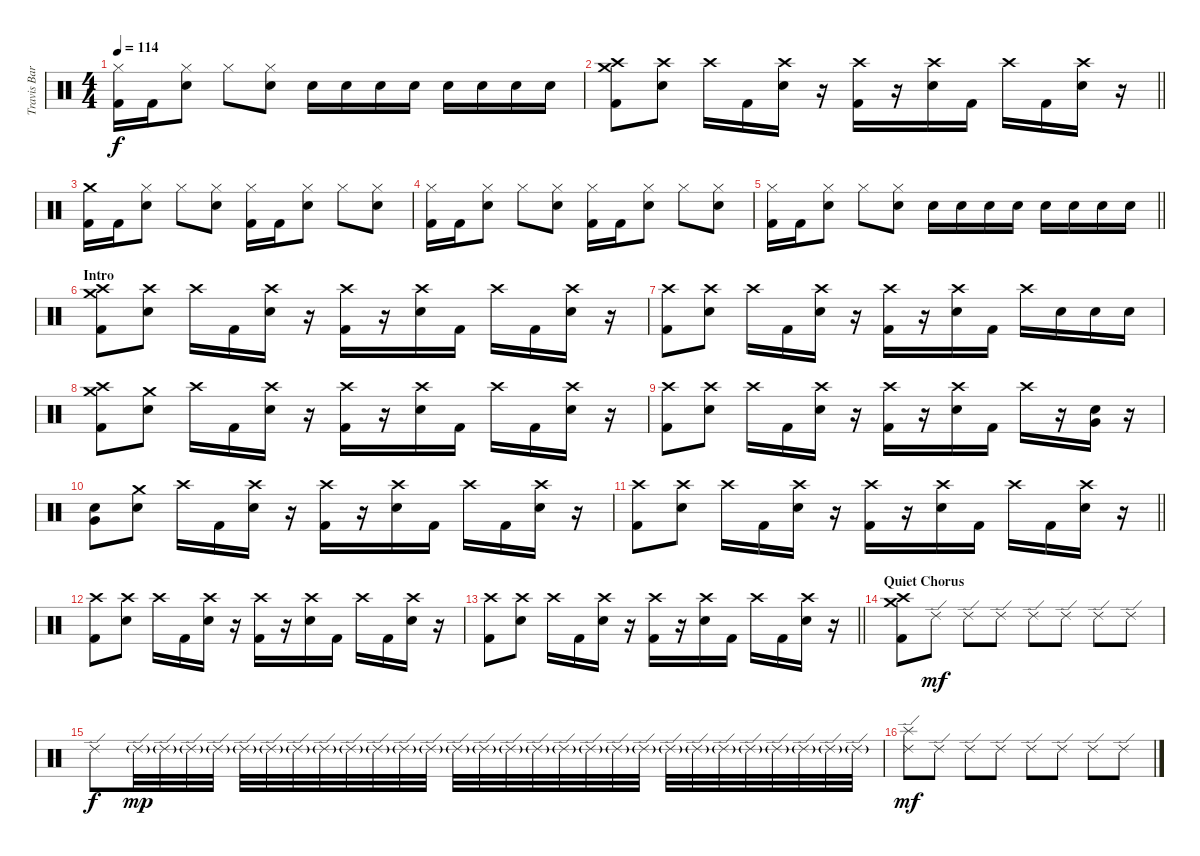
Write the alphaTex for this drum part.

\track ("Travis Barker" "Travis Bar") {instrument percussion}
\staff {score}
\articulation defaults
\ts (4 4)
\tempo 114
\clef neutral
\ks c
("Hi-Hat (closed)" "Kick (hit) 2").16{dy f} "Kick (hit) 2".16 ("Hi-Hat (closed)" "Electric Snare (hit)").8 "Hi-Hat (closed)".8 ("Hi-Hat (closed)" "Electric Snare (hit)").8 "Electric Snare (hit)".16 "Electric Snare (hit)".16 "Electric Snare (hit)".16 "Electric Snare (hit)".16 "Electric Snare (hit)".16 "Electric Snare (hit)".16 "Electric Snare (hit)".16 "Electric Snare (hit)".16 |
\barLineRight lightlight
("Crash medium (hit)" "Crash high (hit)" "Kick (hit) 2").8 ("Crash high (hit)" "Electric Snare (hit)").8 "Crash high (hit)".16 "Kick (hit) 2".16 ("Crash high (hit)" "Electric Snare (hit)").16 r.16 ("Crash high (hit)" "Kick (hit) 2").16 r.16 ("Crash high (hit)" "Electric Snare (hit)").16 "Kick (hit) 2".16 "Crash high (hit)".16 "Kick (hit) 2".16 ("Crash high (hit)" "Electric Snare (hit)").16 r.16 |
("Crash medium (hit)" "Kick (hit) 2").16 "Kick (hit) 2".16 ("Hi-Hat (closed)" "Electric Snare (hit)").8 "Hi-Hat (closed)".8 ("Hi-Hat (closed)" "Electric Snare (hit)").8 ("Hi-Hat (closed)" "Kick (hit) 2").16 "Kick (hit) 2".16 ("Hi-Hat (closed)" "Electric Snare (hit)").8 "Hi-Hat (closed)".8 ("Hi-Hat (closed)" "Electric Snare (hit)").8 |
("Hi-Hat (closed)" "Kick (hit) 2").16 "Kick (hit) 2".16 ("Hi-Hat (closed)" "Electric Snare (hit)").8 "Hi-Hat (closed)".8 ("Hi-Hat (closed)" "Electric Snare (hit)").8 ("Hi-Hat (closed)" "Kick (hit) 2").16 "Kick (hit) 2".16 ("Hi-Hat (closed)" "Electric Snare (hit)").8 "Hi-Hat (closed)".8 ("Hi-Hat (closed)" "Electric Snare (hit)").8 |
\barLineRight lightlight
("Hi-Hat (closed)" "Kick (hit) 2").16 "Kick (hit) 2".16 ("Hi-Hat (closed)" "Electric Snare (hit)").8 "Hi-Hat (closed)".8 ("Hi-Hat (closed)" "Electric Snare (hit)").8 "Electric Snare (hit)".16 "Electric Snare (hit)".16 "Electric Snare (hit)".16 "Electric Snare (hit)".16 "Electric Snare (hit)".16 "Electric Snare (hit)".16 "Electric Snare (hit)".16 "Electric Snare (hit)".16 |
\section ("" "Intro")
("Crash medium (hit)" "Crash high (hit)" "Kick (hit) 2").8 ("Crash high (hit)" "Electric Snare (hit)").8 "Crash high (hit)".16 "Kick (hit) 2".16 ("Crash high (hit)" "Electric Snare (hit)").16 r.16 ("Crash high (hit)" "Kick (hit) 2").16 r.16 ("Crash high (hit)" "Electric Snare (hit)").16 "Kick (hit) 2".16 "Crash high (hit)".16 "Kick (hit) 2".16 ("Crash high (hit)" "Electric Snare (hit)").16 r.16 |
("Crash high (hit)" "Kick (hit) 2").8 ("Crash high (hit)" "Electric Snare (hit)").8 "Crash high (hit)".16 "Kick (hit) 2".16 ("Crash high (hit)" "Electric Snare (hit)").16 r.16 ("Crash high (hit)" "Kick (hit) 2").16 r.16 ("Crash high (hit)" "Electric Snare (hit)").16 "Kick (hit) 2".16 "Crash high (hit)".16 "Electric Snare (hit)".16 "Electric Snare (hit)".16 "Electric Snare (hit)".16 |
("Crash medium (hit)" "Crash high (hit)" "Kick (hit) 2").8 ("Crash medium (hit)" "Electric Snare (hit)").8 "Crash high (hit)".16 "Kick (hit) 2".16 ("Crash high (hit)" "Electric Snare (hit)").16 r.16 ("Crash high (hit)" "Kick (hit) 2").16 r.16 ("Crash high (hit)" "Electric Snare (hit)").16 "Kick (hit) 2".16 "Crash high (hit)".16 "Kick (hit) 2".16 ("Crash high (hit)" "Electric Snare (hit)").16 r.16 |
("Crash high (hit)" "Kick (hit) 2").8 ("Crash high (hit)" "Electric Snare (hit)").8 "Crash high (hit)".16 "Kick (hit) 2".16 ("Crash high (hit)" "Electric Snare (hit)").16 r.16 ("Crash high (hit)" "Kick (hit) 2").16 r.16 ("Crash high (hit)" "Electric Snare (hit)").16 "Kick (hit) 2".16 "Crash high (hit)".16 r.16 ("Electric Snare (hit)" "Very Low Tom (hit)").16 r.16 |
("Electric Snare (hit)" "Very Low Tom (hit)").8 ("Crash medium (hit)" "Electric Snare (hit)").8 "Crash high (hit)".16 "Kick (hit) 2".16 ("Crash high (hit)" "Electric Snare (hit)").16 r.16 ("Crash high (hit)" "Kick (hit) 2").16 r.16 ("Crash high (hit)" "Electric Snare (hit)").16 "Kick (hit) 2".16 "Crash high (hit)".16 "Kick (hit) 2".16 ("Crash high (hit)" "Electric Snare (hit)").16 r.16 |
\barLineRight lightlight
("Crash high (hit)" "Kick (hit) 2").8 ("Crash high (hit)" "Electric Snare (hit)").8 "Crash high (hit)".16 "Kick (hit) 2".16 ("Crash high (hit)" "Electric Snare (hit)").16 r.16 ("Crash high (hit)" "Kick (hit) 2").16 r.16 ("Crash high (hit)" "Electric Snare (hit)").16 "Kick (hit) 2".16 "Crash high (hit)".16 "Kick (hit) 2".16 ("Crash high (hit)" "Electric Snare (hit)").16 r.16 |
("Crash high (hit)" "Kick (hit) 2").8 ("Crash high (hit)" "Electric Snare (hit)").8 "Crash high (hit)".16 "Kick (hit) 2".16 ("Crash high (hit)" "Electric Snare (hit)").16 r.16 ("Crash high (hit)" "Kick (hit) 2").16 r.16 ("Crash high (hit)" "Electric Snare (hit)").16 "Kick (hit) 2".16 "Crash high (hit)".16 "Kick (hit) 2".16 ("Crash high (hit)" "Electric Snare (hit)").16 r.16 |
\barLineRight lightlight
("Crash high (hit)" "Kick (hit) 2").8 ("Crash high (hit)" "Electric Snare (hit)").8 "Crash high (hit)".16 "Kick (hit) 2".16 ("Crash high (hit)" "Electric Snare (hit)").16 r.16 ("Crash high (hit)" "Kick (hit) 2").16 r.16 ("Crash high (hit)" "Electric Snare (hit)").16 "Kick (hit) 2".16 "Crash high (hit)".16 "Kick (hit) 2".16 ("Crash high (hit)" "Electric Snare (hit)").16 r.16 |
\section ("" "Quiet Chorus")
("Crash medium (hit)" "Crash high (hit)" "Kick (hit) 2").8 "Ride (edge) 2".8{dy mf} "Ride (edge) 2".8 "Ride (edge) 2".8 "Ride (edge) 2".8 "Ride (edge) 2".8 "Ride (edge) 2".8 "Ride (edge) 2".8 |
"Ride (edge) 2".8{dy f} "Ride (edge) 2"{g}.32{dy mp} "Ride (edge) 2"{g}.32 "Ride (edge) 2"{g}.32 "Ride (edge) 2"{g}.32 "Ride (edge) 2"{g}.32 "Ride (edge) 2"{g}.32 "Ride (edge) 2"{g}.32 "Ride (edge) 2"{g}.32 "Ride (edge) 2"{g}.32 "Ride (edge) 2"{g}.32 "Ride (edge) 2"{g}.32 "Ride (edge) 2"{g}.32 "Ride (edge) 2"{g}.32 "Ride (edge) 2"{g}.32 "Ride (edge) 2"{g}.32 "Ride (edge) 2"{g}.32 "Ride (edge) 2"{g}.32 "Ride (edge) 2"{g}.32 "Ride (edge) 2"{g}.32 "Ride (edge) 2"{g}.32 "Ride (edge) 2"{g}.32 "Ride (edge) 2"{g}.32 "Ride (edge) 2"{g}.32 "Ride (edge) 2"{g}.32 "Ride (edge) 2"{g}.32 "Ride (edge) 2"{g}.32 "Ride (edge) 2"{g}.32 "Ride (edge) 2"{g}.32 |
("Ride (edge) 2" "Splash (hit)").8{dy mf} "Ride (edge) 2".8 "Ride (edge) 2".8 "Ride (edge) 2".8 "Ride (edge) 2".8 "Ride (edge) 2".8 "Ride (edge) 2".8 "Ride (edge) 2".8
